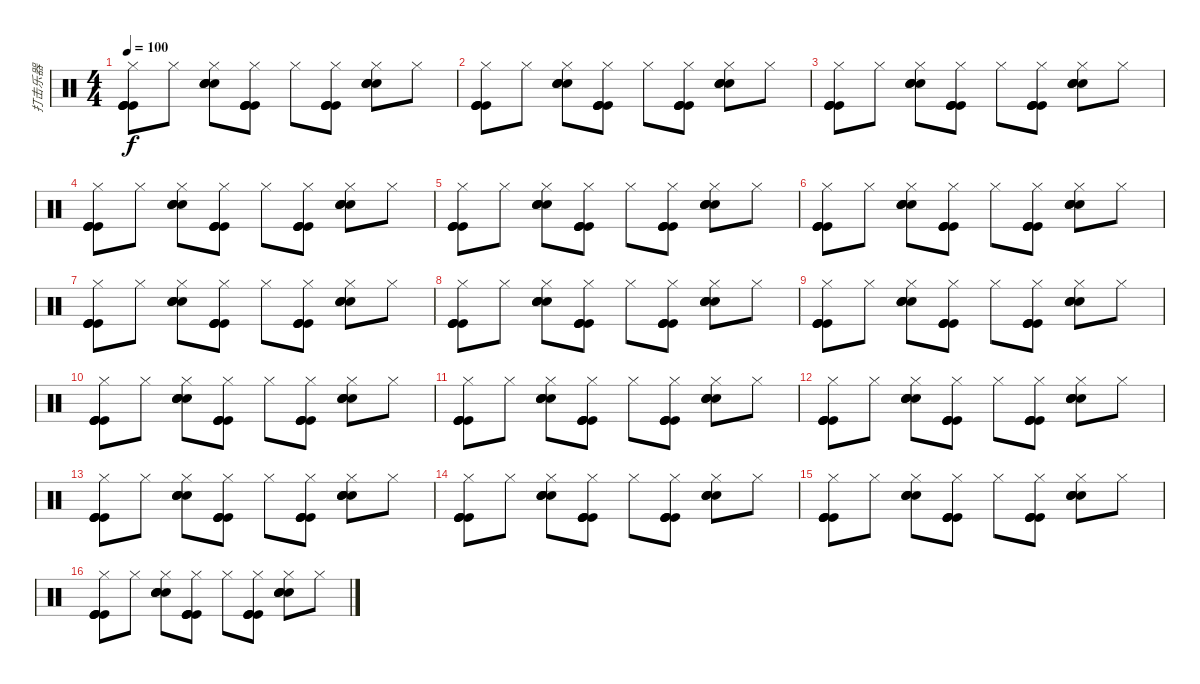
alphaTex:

\track ("打击乐器" "打击乐器") {instrument percussion}
\staff {score}
\articulation defaults
\ts (4 4)
\tempo 100
\clef neutral
\ks c
("Hi-Hat (closed)" "Kick (hit)" "Kick (hit)" "Kick (hit)" "Kick (hit)").8{dy f} "Hi-Hat (closed)".8 ("Hi-Hat (closed)" "Snare (hit) 2" "Snare (hit) 2" "Snare (hit) 2" "Snare (hit) 2").8 ("Hi-Hat (closed)" "Kick (hit)" "Kick (hit)" "Kick (hit)" "Kick (hit)").8 "Hi-Hat (closed)".8 ("Hi-Hat (closed)" "Kick (hit)" "Kick (hit)" "Kick (hit)" "Kick (hit)").8 ("Hi-Hat (closed)" "Snare (hit) 2" "Snare (hit) 2" "Snare (hit) 2" "Snare (hit) 2").8 "Hi-Hat (closed)".8 |
("Hi-Hat (closed)" "Kick (hit)" "Kick (hit)" "Kick (hit)" "Kick (hit)").8 "Hi-Hat (closed)".8 ("Hi-Hat (closed)" "Snare (hit) 2" "Snare (hit) 2" "Snare (hit) 2" "Snare (hit) 2").8 ("Hi-Hat (closed)" "Kick (hit)" "Kick (hit)" "Kick (hit)" "Kick (hit)").8 "Hi-Hat (closed)".8 ("Hi-Hat (closed)" "Kick (hit)" "Kick (hit)" "Kick (hit)" "Kick (hit)").8 ("Hi-Hat (closed)" "Snare (hit) 2" "Snare (hit) 2" "Snare (hit) 2" "Snare (hit) 2").8 "Hi-Hat (closed)".8 |
("Hi-Hat (closed)" "Kick (hit)" "Kick (hit)" "Kick (hit)" "Kick (hit)").8 "Hi-Hat (closed)".8 ("Hi-Hat (closed)" "Snare (hit) 2" "Snare (hit) 2" "Snare (hit) 2" "Snare (hit) 2").8 ("Hi-Hat (closed)" "Kick (hit)" "Kick (hit)" "Kick (hit)" "Kick (hit)").8 "Hi-Hat (closed)".8 ("Hi-Hat (closed)" "Kick (hit)" "Kick (hit)" "Kick (hit)" "Kick (hit)").8 ("Hi-Hat (closed)" "Snare (hit) 2" "Snare (hit) 2" "Snare (hit) 2" "Snare (hit) 2").8 "Hi-Hat (closed)".8 |
("Hi-Hat (closed)" "Kick (hit)" "Kick (hit)" "Kick (hit)" "Kick (hit)").8 "Hi-Hat (closed)".8 ("Hi-Hat (closed)" "Snare (hit) 2" "Snare (hit) 2" "Snare (hit) 2" "Snare (hit) 2").8 ("Hi-Hat (closed)" "Kick (hit)" "Kick (hit)" "Kick (hit)" "Kick (hit)").8 "Hi-Hat (closed)".8 ("Hi-Hat (closed)" "Kick (hit)" "Kick (hit)" "Kick (hit)" "Kick (hit)").8 ("Hi-Hat (closed)" "Snare (hit) 2" "Snare (hit) 2" "Snare (hit) 2" "Snare (hit) 2").8 "Hi-Hat (closed)".8 |
("Hi-Hat (closed)" "Kick (hit)" "Kick (hit)" "Kick (hit)" "Kick (hit)").8 "Hi-Hat (closed)".8 ("Hi-Hat (closed)" "Snare (hit) 2" "Snare (hit) 2" "Snare (hit) 2" "Snare (hit) 2").8 ("Hi-Hat (closed)" "Kick (hit)" "Kick (hit)" "Kick (hit)" "Kick (hit)").8 "Hi-Hat (closed)".8 ("Hi-Hat (closed)" "Kick (hit)" "Kick (hit)" "Kick (hit)" "Kick (hit)").8 ("Hi-Hat (closed)" "Snare (hit) 2" "Snare (hit) 2" "Snare (hit) 2" "Snare (hit) 2").8 "Hi-Hat (closed)".8 |
("Hi-Hat (closed)" "Kick (hit)" "Kick (hit)" "Kick (hit)" "Kick (hit)").8 "Hi-Hat (closed)".8 ("Hi-Hat (closed)" "Snare (hit) 2" "Snare (hit) 2" "Snare (hit) 2" "Snare (hit) 2").8 ("Hi-Hat (closed)" "Kick (hit)" "Kick (hit)" "Kick (hit)" "Kick (hit)").8 "Hi-Hat (closed)".8 ("Hi-Hat (closed)" "Kick (hit)" "Kick (hit)" "Kick (hit)" "Kick (hit)").8 ("Hi-Hat (closed)" "Snare (hit) 2" "Snare (hit) 2" "Snare (hit) 2" "Snare (hit) 2").8 "Hi-Hat (closed)".8 |
("Hi-Hat (closed)" "Kick (hit)" "Kick (hit)" "Kick (hit)" "Kick (hit)").8 "Hi-Hat (closed)".8 ("Hi-Hat (closed)" "Snare (hit) 2" "Snare (hit) 2" "Snare (hit) 2" "Snare (hit) 2").8 ("Hi-Hat (closed)" "Kick (hit)" "Kick (hit)" "Kick (hit)" "Kick (hit)").8 "Hi-Hat (closed)".8 ("Hi-Hat (closed)" "Kick (hit)" "Kick (hit)" "Kick (hit)" "Kick (hit)").8 ("Hi-Hat (closed)" "Snare (hit) 2" "Snare (hit) 2" "Snare (hit) 2" "Snare (hit) 2").8 "Hi-Hat (closed)".8 |
("Hi-Hat (closed)" "Kick (hit)" "Kick (hit)" "Kick (hit)" "Kick (hit)").8 "Hi-Hat (closed)".8 ("Hi-Hat (closed)" "Snare (hit) 2" "Snare (hit) 2" "Snare (hit) 2" "Snare (hit) 2").8 ("Hi-Hat (closed)" "Kick (hit)" "Kick (hit)" "Kick (hit)" "Kick (hit)").8 "Hi-Hat (closed)".8 ("Hi-Hat (closed)" "Kick (hit)" "Kick (hit)" "Kick (hit)" "Kick (hit)").8 ("Hi-Hat (closed)" "Snare (hit) 2" "Snare (hit) 2" "Snare (hit) 2" "Snare (hit) 2").8 "Hi-Hat (closed)".8 |
("Hi-Hat (closed)" "Kick (hit)" "Kick (hit)" "Kick (hit)" "Kick (hit)").8 "Hi-Hat (closed)".8 ("Hi-Hat (closed)" "Snare (hit) 2" "Snare (hit) 2" "Snare (hit) 2" "Snare (hit) 2").8 ("Hi-Hat (closed)" "Kick (hit)" "Kick (hit)" "Kick (hit)" "Kick (hit)").8 "Hi-Hat (closed)".8 ("Hi-Hat (closed)" "Kick (hit)" "Kick (hit)" "Kick (hit)" "Kick (hit)").8 ("Hi-Hat (closed)" "Snare (hit) 2" "Snare (hit) 2" "Snare (hit) 2" "Snare (hit) 2").8 "Hi-Hat (closed)".8 |
("Hi-Hat (closed)" "Kick (hit)" "Kick (hit)" "Kick (hit)" "Kick (hit)").8 "Hi-Hat (closed)".8 ("Hi-Hat (closed)" "Snare (hit) 2" "Snare (hit) 2" "Snare (hit) 2" "Snare (hit) 2").8 ("Hi-Hat (closed)" "Kick (hit)" "Kick (hit)" "Kick (hit)" "Kick (hit)").8 "Hi-Hat (closed)".8 ("Hi-Hat (closed)" "Kick (hit)" "Kick (hit)" "Kick (hit)" "Kick (hit)").8 ("Hi-Hat (closed)" "Snare (hit) 2" "Snare (hit) 2" "Snare (hit) 2" "Snare (hit) 2").8 "Hi-Hat (closed)".8 |
("Hi-Hat (closed)" "Kick (hit)" "Kick (hit)" "Kick (hit)" "Kick (hit)").8 "Hi-Hat (closed)".8 ("Hi-Hat (closed)" "Snare (hit) 2" "Snare (hit) 2" "Snare (hit) 2" "Snare (hit) 2").8 ("Hi-Hat (closed)" "Kick (hit)" "Kick (hit)" "Kick (hit)" "Kick (hit)").8 "Hi-Hat (closed)".8 ("Hi-Hat (closed)" "Kick (hit)" "Kick (hit)" "Kick (hit)" "Kick (hit)").8 ("Hi-Hat (closed)" "Snare (hit) 2" "Snare (hit) 2" "Snare (hit) 2" "Snare (hit) 2").8 "Hi-Hat (closed)".8 |
("Hi-Hat (closed)" "Kick (hit)" "Kick (hit)" "Kick (hit)" "Kick (hit)").8 "Hi-Hat (closed)".8 ("Hi-Hat (closed)" "Snare (hit) 2" "Snare (hit) 2" "Snare (hit) 2" "Snare (hit) 2").8 ("Hi-Hat (closed)" "Kick (hit)" "Kick (hit)" "Kick (hit)" "Kick (hit)").8 "Hi-Hat (closed)".8 ("Hi-Hat (closed)" "Kick (hit)" "Kick (hit)" "Kick (hit)" "Kick (hit)").8 ("Hi-Hat (closed)" "Snare (hit) 2" "Snare (hit) 2" "Snare (hit) 2" "Snare (hit) 2").8 "Hi-Hat (closed)".8 |
("Hi-Hat (closed)" "Kick (hit)" "Kick (hit)" "Kick (hit)" "Kick (hit)").8 "Hi-Hat (closed)".8 ("Hi-Hat (closed)" "Snare (hit) 2" "Snare (hit) 2" "Snare (hit) 2" "Snare (hit) 2").8 ("Hi-Hat (closed)" "Kick (hit)" "Kick (hit)" "Kick (hit)" "Kick (hit)").8 "Hi-Hat (closed)".8 ("Hi-Hat (closed)" "Kick (hit)" "Kick (hit)" "Kick (hit)" "Kick (hit)").8 ("Hi-Hat (closed)" "Snare (hit) 2" "Snare (hit) 2" "Snare (hit) 2" "Snare (hit) 2").8 "Hi-Hat (closed)".8 |
("Hi-Hat (closed)" "Kick (hit)" "Kick (hit)" "Kick (hit)" "Kick (hit)").8 "Hi-Hat (closed)".8 ("Hi-Hat (closed)" "Snare (hit) 2" "Snare (hit) 2" "Snare (hit) 2" "Snare (hit) 2").8 ("Hi-Hat (closed)" "Kick (hit)" "Kick (hit)" "Kick (hit)" "Kick (hit)").8 "Hi-Hat (closed)".8 ("Hi-Hat (closed)" "Kick (hit)" "Kick (hit)" "Kick (hit)" "Kick (hit)").8 ("Hi-Hat (closed)" "Snare (hit) 2" "Snare (hit) 2" "Snare (hit) 2" "Snare (hit) 2").8 "Hi-Hat (closed)".8 |
("Hi-Hat (closed)" "Kick (hit)" "Kick (hit)" "Kick (hit)" "Kick (hit)").8 "Hi-Hat (closed)".8 ("Hi-Hat (closed)" "Snare (hit) 2" "Snare (hit) 2" "Snare (hit) 2" "Snare (hit) 2").8 ("Hi-Hat (closed)" "Kick (hit)" "Kick (hit)" "Kick (hit)" "Kick (hit)").8 "Hi-Hat (closed)".8 ("Hi-Hat (closed)" "Kick (hit)" "Kick (hit)" "Kick (hit)" "Kick (hit)").8 ("Hi-Hat (closed)" "Snare (hit) 2" "Snare (hit) 2" "Snare (hit) 2" "Snare (hit) 2").8 "Hi-Hat (closed)".8 |
("Hi-Hat (closed)" "Kick (hit)" "Kick (hit)" "Kick (hit)" "Kick (hit)").8 "Hi-Hat (closed)".8 ("Hi-Hat (closed)" "Snare (hit) 2" "Snare (hit) 2" "Snare (hit) 2" "Snare (hit) 2").8 ("Hi-Hat (closed)" "Kick (hit)" "Kick (hit)" "Kick (hit)" "Kick (hit)").8 "Hi-Hat (closed)".8 ("Hi-Hat (closed)" "Kick (hit)" "Kick (hit)" "Kick (hit)" "Kick (hit)").8 ("Hi-Hat (closed)" "Snare (hit) 2" "Snare (hit) 2" "Snare (hit) 2" "Snare (hit) 2").8 "Hi-Hat (closed)".8
